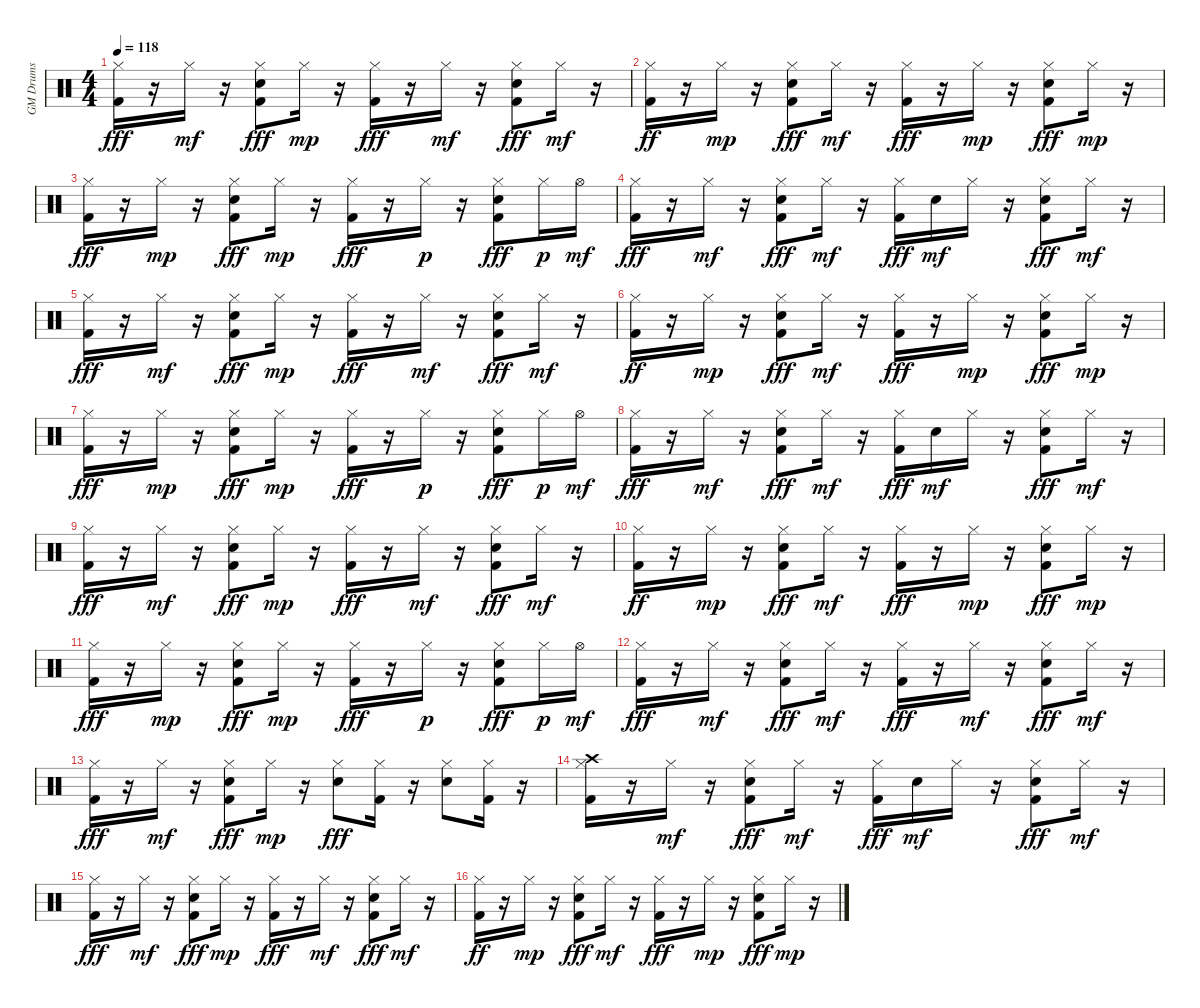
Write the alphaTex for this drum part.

\track ("GM Drums" "GM Drums") {instrument percussion}
\staff {score}
\articulation defaults
\ts (4 4)
\tempo 118
\clef neutral
\ks c
("Hi-Hat (closed)" "Kick (hit) 2").16{dy fff} r.16 "Hi-Hat (closed)".16{dy mf} r.16 ("Hi-Hat (closed)" "Kick (hit) 2" "Electric Snare (hit)").8{dy fff} "Hi-Hat (closed)".16{dy mp} r.16 ("Hi-Hat (closed)" "Kick (hit) 2").16{dy fff} r.16 "Hi-Hat (closed)".16{dy mf} r.16 ("Hi-Hat (closed)" "Kick (hit) 2" "Electric Snare (hit)").8{dy fff} "Hi-Hat (closed)".16{dy mf} r.16 |
("Hi-Hat (closed)" "Kick (hit) 2").16{dy ff} r.16 "Hi-Hat (closed)".16{dy mp} r.16 ("Hi-Hat (closed)" "Kick (hit) 2" "Electric Snare (hit)").8{dy fff} "Hi-Hat (closed)".16{dy mf} r.16 ("Hi-Hat (closed)" "Kick (hit) 2").16{dy fff} r.16 "Hi-Hat (closed)".16{dy mp} r.16 ("Hi-Hat (closed)" "Kick (hit) 2" "Electric Snare (hit)").8{dy fff} "Hi-Hat (closed)".16{dy mp} r.16 |
("Hi-Hat (closed)" "Kick (hit) 2").16{dy fff} r.16 "Hi-Hat (closed)".16{dy mp} r.16 ("Hi-Hat (closed)" "Kick (hit) 2" "Electric Snare (hit)").8{dy fff} "Hi-Hat (closed)".16{dy mp} r.16 ("Hi-Hat (closed)" "Kick (hit) 2").16{dy fff} r.16 "Hi-Hat (closed)".16{dy p} r.16 ("Hi-Hat (closed)" "Kick (hit) 2" "Electric Snare (hit)").8{dy fff} "Hi-Hat (closed)".16{dy p} "Hi-Hat (open)".16{dy mf} |
("Kick (hit) 2" "Hi-Hat (closed)").16{dy fff} r.16 "Hi-Hat (closed)".16{dy mf} r.16 ("Hi-Hat (closed)" "Kick (hit) 2" "Electric Snare (hit)").8{dy fff} "Hi-Hat (closed)".16{dy mf} r.16 ("Hi-Hat (closed)" "Kick (hit) 2").16{dy fff} "Snare (hit)".16{dy mf} "Hi-Hat (closed)".16 r.16 ("Hi-Hat (closed)" "Kick (hit) 2" "Electric Snare (hit)").8{dy fff} "Hi-Hat (closed)".16{dy mf} r.16 |
("Hi-Hat (closed)" "Kick (hit) 2").16{dy fff} r.16 "Hi-Hat (closed)".16{dy mf} r.16 ("Hi-Hat (closed)" "Kick (hit) 2" "Electric Snare (hit)").8{dy fff} "Hi-Hat (closed)".16{dy mp} r.16 ("Hi-Hat (closed)" "Kick (hit) 2").16{dy fff} r.16 "Hi-Hat (closed)".16{dy mf} r.16 ("Hi-Hat (closed)" "Kick (hit) 2" "Electric Snare (hit)").8{dy fff} "Hi-Hat (closed)".16{dy mf} r.16 |
("Hi-Hat (closed)" "Kick (hit) 2").16{dy ff} r.16 "Hi-Hat (closed)".16{dy mp} r.16 ("Hi-Hat (closed)" "Kick (hit) 2" "Electric Snare (hit)").8{dy fff} "Hi-Hat (closed)".16{dy mf} r.16 ("Hi-Hat (closed)" "Kick (hit) 2").16{dy fff} r.16 "Hi-Hat (closed)".16{dy mp} r.16 ("Hi-Hat (closed)" "Kick (hit) 2" "Electric Snare (hit)").8{dy fff} "Hi-Hat (closed)".16{dy mp} r.16 |
("Hi-Hat (closed)" "Kick (hit) 2").16{dy fff} r.16 "Hi-Hat (closed)".16{dy mp} r.16 ("Hi-Hat (closed)" "Kick (hit) 2" "Electric Snare (hit)").8{dy fff} "Hi-Hat (closed)".16{dy mp} r.16 ("Hi-Hat (closed)" "Kick (hit) 2").16{dy fff} r.16 "Hi-Hat (closed)".16{dy p} r.16 ("Hi-Hat (closed)" "Kick (hit) 2" "Electric Snare (hit)").8{dy fff} "Hi-Hat (closed)".16{dy p} "Hi-Hat (open)".16{dy mf} |
("Kick (hit) 2" "Hi-Hat (closed)").16{dy fff} r.16 "Hi-Hat (closed)".16{dy mf} r.16 ("Hi-Hat (closed)" "Kick (hit) 2" "Electric Snare (hit)").8{dy fff} "Hi-Hat (closed)".16{dy mf} r.16 ("Hi-Hat (closed)" "Kick (hit) 2").16{dy fff} "Snare (hit)".16{dy mf} "Hi-Hat (closed)".16 r.16 ("Hi-Hat (closed)" "Kick (hit) 2" "Electric Snare (hit)").8{dy fff} "Hi-Hat (closed)".16{dy mf} r.16 |
("Hi-Hat (closed)" "Kick (hit) 2").16{dy fff} r.16 "Hi-Hat (closed)".16{dy mf} r.16 ("Hi-Hat (closed)" "Kick (hit) 2" "Electric Snare (hit)").8{dy fff} "Hi-Hat (closed)".16{dy mp} r.16 ("Hi-Hat (closed)" "Kick (hit) 2").16{dy fff} r.16 "Hi-Hat (closed)".16{dy mf} r.16 ("Hi-Hat (closed)" "Kick (hit) 2" "Electric Snare (hit)").8{dy fff} "Hi-Hat (closed)".16{dy mf} r.16 |
("Hi-Hat (closed)" "Kick (hit) 2").16{dy ff} r.16 "Hi-Hat (closed)".16{dy mp} r.16 ("Hi-Hat (closed)" "Kick (hit) 2" "Electric Snare (hit)").8{dy fff} "Hi-Hat (closed)".16{dy mf} r.16 ("Hi-Hat (closed)" "Kick (hit) 2").16{dy fff} r.16 "Hi-Hat (closed)".16{dy mp} r.16 ("Hi-Hat (closed)" "Kick (hit) 2" "Electric Snare (hit)").8{dy fff} "Hi-Hat (closed)".16{dy mp} r.16 |
("Hi-Hat (closed)" "Kick (hit) 2").16{dy fff} r.16 "Hi-Hat (closed)".16{dy mp} r.16 ("Hi-Hat (closed)" "Kick (hit) 2" "Electric Snare (hit)").8{dy fff} "Hi-Hat (closed)".16{dy mp} r.16 ("Hi-Hat (closed)" "Kick (hit) 2").16{dy fff} r.16 "Hi-Hat (closed)".16{dy p} r.16 ("Hi-Hat (closed)" "Kick (hit) 2" "Electric Snare (hit)").8{dy fff} "Hi-Hat (closed)".16{dy p} "Hi-Hat (open)".16{dy mf} |
("Kick (hit) 2" "Hi-Hat (closed)").16{dy fff} r.16 "Hi-Hat (closed)".16{dy mf} r.16 ("Hi-Hat (closed)" "Kick (hit) 2" "Electric Snare (hit)").8{dy fff} "Hi-Hat (closed)".16{dy mf} r.16 ("Hi-Hat (closed)" "Kick (hit) 2").16{dy fff} r.16 "Hi-Hat (closed)".16{dy mf} r.16 ("Hi-Hat (closed)" "Kick (hit) 2" "Electric Snare (hit)").8{dy fff} "Hi-Hat (closed)".16{dy mf} r.16 |
("Hi-Hat (closed)" "Kick (hit) 2").16{dy fff} r.16 "Hi-Hat (closed)".16{dy mf} r.16 ("Hi-Hat (closed)" "Kick (hit) 2" "Electric Snare (hit)").8{dy fff} "Hi-Hat (closed)".16{dy mp} r.16 ("Hi-Hat (closed)" "Electric Snare (hit)").8{dy fff} ("Hi-Hat (closed)" "Kick (hit) 2").16 r.16 ("Hi-Hat (closed)" "Electric Snare (hit)").8 ("Hi-Hat (closed)" "Kick (hit) 2").16 r.16 |
("Crash high (hit)" "Kick (hit) 2" "Hi-Hat (closed)").16 r.16 "Hi-Hat (closed)".16{dy mf} r.16 ("Hi-Hat (closed)" "Kick (hit) 2" "Electric Snare (hit)").8{dy fff} "Hi-Hat (closed)".16{dy mf} r.16 ("Hi-Hat (closed)" "Kick (hit) 2").16{dy fff} "Snare (hit)".16{dy mf} "Hi-Hat (closed)".16 r.16 ("Hi-Hat (closed)" "Kick (hit) 2" "Electric Snare (hit)").8{dy fff} "Hi-Hat (closed)".16{dy mf} r.16 |
("Hi-Hat (closed)" "Kick (hit) 2").16{dy fff} r.16 "Hi-Hat (closed)".16{dy mf} r.16 ("Hi-Hat (closed)" "Kick (hit) 2" "Electric Snare (hit)").8{dy fff} "Hi-Hat (closed)".16{dy mp} r.16 ("Hi-Hat (closed)" "Kick (hit) 2").16{dy fff} r.16 "Hi-Hat (closed)".16{dy mf} r.16 ("Hi-Hat (closed)" "Kick (hit) 2" "Electric Snare (hit)").8{dy fff} "Hi-Hat (closed)".16{dy mf} r.16 |
("Hi-Hat (closed)" "Kick (hit) 2").16{dy ff} r.16 "Hi-Hat (closed)".16{dy mp} r.16 ("Hi-Hat (closed)" "Kick (hit) 2" "Electric Snare (hit)").8{dy fff} "Hi-Hat (closed)".16{dy mf} r.16 ("Hi-Hat (closed)" "Kick (hit) 2").16{dy fff} r.16 "Hi-Hat (closed)".16{dy mp} r.16 ("Hi-Hat (closed)" "Kick (hit) 2" "Electric Snare (hit)").8{dy fff} "Hi-Hat (closed)".16{dy mp} r.16
